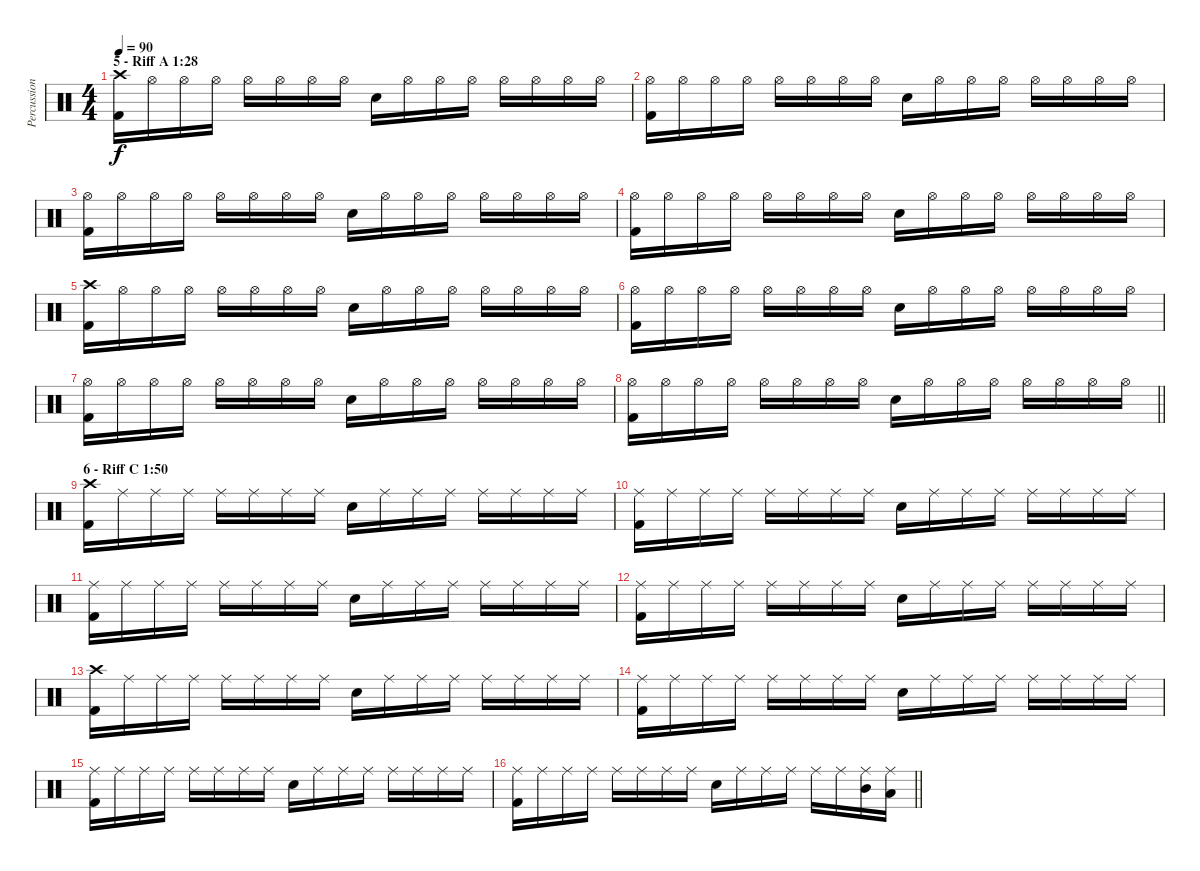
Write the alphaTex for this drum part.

\track ("Percussion" "Percussion") {instrument percussion}
\staff {score}
\articulation defaults
\ts (4 4)
\section ("" "5 - Riff A 1:28")
\tempo 90
\clef neutral
\ks c
("Crash high (hit)" "Kick (hit) 2").16{dy f} "Hi-Hat (open)".16 "Hi-Hat (open)".16 "Hi-Hat (open)".16 "Hi-Hat (open)".16 "Hi-Hat (open)".16 "Hi-Hat (open)".16 "Hi-Hat (open)".16 "Snare (hit) 2".16 "Hi-Hat (open)".16 "Hi-Hat (open)".16 "Hi-Hat (open)".16 "Hi-Hat (open)".16 "Hi-Hat (open)".16 "Hi-Hat (open)".16 "Hi-Hat (open)".16 |
("Hi-Hat (open)" "Kick (hit) 2").16 "Hi-Hat (open)".16 "Hi-Hat (open)".16 "Hi-Hat (open)".16 "Hi-Hat (open)".16 "Hi-Hat (open)".16 "Hi-Hat (open)".16 "Hi-Hat (open)".16 "Snare (hit) 2".16 "Hi-Hat (open)".16 "Hi-Hat (open)".16 "Hi-Hat (open)".16 "Hi-Hat (open)".16 "Hi-Hat (open)".16 "Hi-Hat (open)".16 "Hi-Hat (open)".16 |
("Hi-Hat (open)" "Kick (hit) 2").16 "Hi-Hat (open)".16 "Hi-Hat (open)".16 "Hi-Hat (open)".16 "Hi-Hat (open)".16 "Hi-Hat (open)".16 "Hi-Hat (open)".16 "Hi-Hat (open)".16 "Snare (hit) 2".16 "Hi-Hat (open)".16 "Hi-Hat (open)".16 "Hi-Hat (open)".16 "Hi-Hat (open)".16 "Hi-Hat (open)".16 "Hi-Hat (open)".16 "Hi-Hat (open)".16 |
("Hi-Hat (open)" "Kick (hit) 2").16 "Hi-Hat (open)".16 "Hi-Hat (open)".16 "Hi-Hat (open)".16 "Hi-Hat (open)".16 "Hi-Hat (open)".16 "Hi-Hat (open)".16 "Hi-Hat (open)".16 "Snare (hit) 2".16 "Hi-Hat (open)".16 "Hi-Hat (open)".16 "Hi-Hat (open)".16 "Hi-Hat (open)".16 "Hi-Hat (open)".16 "Hi-Hat (open)".16 "Hi-Hat (open)".16 |
("Crash high (hit)" "Kick (hit) 2").16 "Hi-Hat (open)".16 "Hi-Hat (open)".16 "Hi-Hat (open)".16 "Hi-Hat (open)".16 "Hi-Hat (open)".16 "Hi-Hat (open)".16 "Hi-Hat (open)".16 "Snare (hit) 2".16 "Hi-Hat (open)".16 "Hi-Hat (open)".16 "Hi-Hat (open)".16 "Hi-Hat (open)".16 "Hi-Hat (open)".16 "Hi-Hat (open)".16 "Hi-Hat (open)".16 |
("Hi-Hat (open)" "Kick (hit) 2").16 "Hi-Hat (open)".16 "Hi-Hat (open)".16 "Hi-Hat (open)".16 "Hi-Hat (open)".16 "Hi-Hat (open)".16 "Hi-Hat (open)".16 "Hi-Hat (open)".16 "Snare (hit) 2".16 "Hi-Hat (open)".16 "Hi-Hat (open)".16 "Hi-Hat (open)".16 "Hi-Hat (open)".16 "Hi-Hat (open)".16 "Hi-Hat (open)".16 "Hi-Hat (open)".16 |
("Hi-Hat (open)" "Kick (hit) 2").16 "Hi-Hat (open)".16 "Hi-Hat (open)".16 "Hi-Hat (open)".16 "Hi-Hat (open)".16 "Hi-Hat (open)".16 "Hi-Hat (open)".16 "Hi-Hat (open)".16 "Snare (hit) 2".16 "Hi-Hat (open)".16 "Hi-Hat (open)".16 "Hi-Hat (open)".16 "Hi-Hat (open)".16 "Hi-Hat (open)".16 "Hi-Hat (open)".16 "Hi-Hat (open)".16 |
\barLineRight lightlight
("Hi-Hat (open)" "Kick (hit) 2").16 "Hi-Hat (open)".16 "Hi-Hat (open)".16 "Hi-Hat (open)".16 "Hi-Hat (open)".16 "Hi-Hat (open)".16 "Hi-Hat (open)".16 "Hi-Hat (open)".16 "Snare (hit) 2".16 "Hi-Hat (open)".16 "Hi-Hat (open)".16 "Hi-Hat (open)".16 "Hi-Hat (open)".16 "Hi-Hat (open)".16 "Hi-Hat (open)".16 "Hi-Hat (open)".16 |
\section ("" "6 - Riff C 1:50")
("Crash high (hit)" "Kick (hit) 2").16 "Ride (middle)".16 "Ride (middle)".16 "Ride (middle)".16 "Ride (middle)".16 "Ride (middle)".16 "Ride (middle)".16 "Ride (middle)".16 "Snare (hit) 2".16 "Ride (middle)".16 "Ride (middle)".16 "Ride (middle)".16 "Ride (middle)".16 "Ride (middle)".16 "Ride (middle)".16 "Ride (middle)".16 |
("Ride (middle)" "Kick (hit) 2").16 "Ride (middle)".16 "Ride (middle)".16 "Ride (middle)".16 "Ride (middle)".16 "Ride (middle)".16 "Ride (middle)".16 "Ride (middle)".16 "Snare (hit) 2".16 "Ride (middle)".16 "Ride (middle)".16 "Ride (middle)".16 "Ride (middle)".16 "Ride (middle)".16 "Ride (middle)".16 "Ride (middle)".16 |
("Ride (middle)" "Kick (hit) 2").16 "Ride (middle)".16 "Ride (middle)".16 "Ride (middle)".16 "Ride (middle)".16 "Ride (middle)".16 "Ride (middle)".16 "Ride (middle)".16 "Snare (hit) 2".16 "Ride (middle)".16 "Ride (middle)".16 "Ride (middle)".16 "Ride (middle)".16 "Ride (middle)".16 "Ride (middle)".16 "Ride (middle)".16 |
("Ride (middle)" "Kick (hit) 2").16 "Ride (middle)".16 "Ride (middle)".16 "Ride (middle)".16 "Ride (middle)".16 "Ride (middle)".16 "Ride (middle)".16 "Ride (middle)".16 "Snare (hit) 2".16 "Ride (middle)".16 "Ride (middle)".16 "Ride (middle)".16 "Ride (middle)".16 "Ride (middle)".16 "Ride (middle)".16 "Ride (middle)".16 |
("Crash high (hit)" "Kick (hit) 2").16 "Ride (middle)".16 "Ride (middle)".16 "Ride (middle)".16 "Ride (middle)".16 "Ride (middle)".16 "Ride (middle)".16 "Ride (middle)".16 "Snare (hit) 2".16 "Ride (middle)".16 "Ride (middle)".16 "Ride (middle)".16 "Ride (middle)".16 "Ride (middle)".16 "Ride (middle)".16 "Ride (middle)".16 |
("Ride (middle)" "Kick (hit) 2").16 "Ride (middle)".16 "Ride (middle)".16 "Ride (middle)".16 "Ride (middle)".16 "Ride (middle)".16 "Ride (middle)".16 "Ride (middle)".16 "Snare (hit) 2".16 "Ride (middle)".16 "Ride (middle)".16 "Ride (middle)".16 "Ride (middle)".16 "Ride (middle)".16 "Ride (middle)".16 "Ride (middle)".16 |
("Ride (middle)" "Kick (hit) 2").16 "Ride (middle)".16 "Ride (middle)".16 "Ride (middle)".16 "Ride (middle)".16 "Ride (middle)".16 "Ride (middle)".16 "Ride (middle)".16 "Snare (hit) 2".16 "Ride (middle)".16 "Ride (middle)".16 "Ride (middle)".16 "Ride (middle)".16 "Ride (middle)".16 "Ride (middle)".16 "Ride (middle)".16 |
\barLineRight lightlight
("Ride (middle)" "Kick (hit) 2").16 "Ride (middle)".16 "Ride (middle)".16 "Ride (middle)".16 "Ride (middle)".16 "Ride (middle)".16 "Ride (middle)".16 "Ride (middle)".16 "Snare (hit) 2".16 "Ride (middle)".16 "Ride (middle)".16 "Ride (middle)".16 "Ride (middle)".16 "Ride (middle)".16 ("Ride (middle)" "Mid Tom (hit)").16 ("Ride (middle)" "Low Tom (hit)").16
